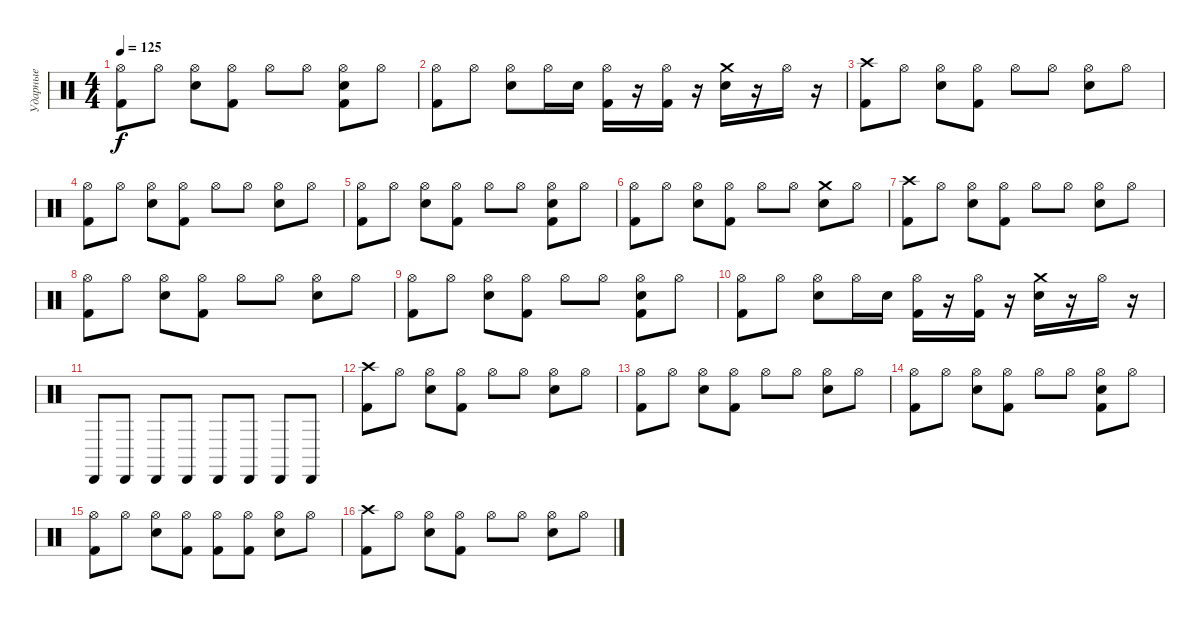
\track ("Ударные" "Ударные") {instrument percussion}
\staff {score}
\articulation defaults
\ts (4 4)
\tempo 125
\clef neutral
\ks c
("Hi-Hat (open)" "Kick (hit) 2").8{dy f} "Hi-Hat (open)".8 ("Hi-Hat (open)" "Snare (hit) 2").8 ("Hi-Hat (open)" "Kick (hit) 2").8 "Hi-Hat (open)".8 "Hi-Hat (open)".8 ("Hi-Hat (open)" "Snare (hit) 2" "Kick (hit) 2").8 "Hi-Hat (open)".8 |
("Hi-Hat (open)" "Kick (hit) 2").8 "Hi-Hat (open)".8 ("Hi-Hat (open)" "Snare (hit) 2").8 "Hi-Hat (open)".16 "Snare (hit) 2".16 ("Hi-Hat (open)" "Kick (hit) 2").16 r.16 ("Hi-Hat (open)" "Kick (hit) 2").16 r.16 ("Crash medium (hit)" "Snare (hit) 2").16 r.16 "Hi-Hat (open)".16 r.16 |
("Crash high (hit)" "Kick (hit) 2").8 "Hi-Hat (open)".8 ("Hi-Hat (open)" "Snare (hit) 2").8 ("Hi-Hat (open)" "Kick (hit) 2").8 "Hi-Hat (open)".8 "Hi-Hat (open)".8 ("Hi-Hat (open)" "Snare (hit) 2").8 "Hi-Hat (open)".8 |
("Hi-Hat (open)" "Kick (hit) 2").8 "Hi-Hat (open)".8 ("Hi-Hat (open)" "Snare (hit) 2").8 ("Hi-Hat (open)" "Kick (hit) 2").8 "Hi-Hat (open)".8 "Hi-Hat (open)".8 ("Hi-Hat (open)" "Snare (hit) 2").8 "Hi-Hat (open)".8 |
("Hi-Hat (open)" "Kick (hit) 2").8 "Hi-Hat (open)".8 ("Hi-Hat (open)" "Snare (hit) 2").8 ("Hi-Hat (open)" "Kick (hit) 2").8 "Hi-Hat (open)".8 "Hi-Hat (open)".8 ("Hi-Hat (open)" "Snare (hit) 2" "Kick (hit) 2").8 "Hi-Hat (open)".8 |
("Hi-Hat (open)" "Kick (hit) 2").8 "Hi-Hat (open)".8 ("Hi-Hat (open)" "Snare (hit) 2").8 ("Hi-Hat (open)" "Kick (hit) 2").8 "Hi-Hat (open)".8 "Hi-Hat (open)".8 ("Crash medium (hit)" "Snare (hit) 2").8 "Hi-Hat (open)".8 |
("Crash high (hit)" "Kick (hit) 2").8 "Hi-Hat (open)".8 ("Hi-Hat (open)" "Snare (hit) 2").8 ("Hi-Hat (open)" "Kick (hit) 2").8 "Hi-Hat (open)".8 "Hi-Hat (open)".8 ("Hi-Hat (open)" "Snare (hit) 2").8 "Hi-Hat (open)".8 |
("Hi-Hat (open)" "Kick (hit) 2").8 "Hi-Hat (open)".8 ("Hi-Hat (open)" "Snare (hit) 2").8 ("Hi-Hat (open)" "Kick (hit) 2").8 "Hi-Hat (open)".8 "Hi-Hat (open)".8 ("Hi-Hat (open)" "Snare (hit) 2").8 "Hi-Hat (open)".8 |
("Hi-Hat (open)" "Kick (hit) 2").8 "Hi-Hat (open)".8 ("Hi-Hat (open)" "Snare (hit) 2").8 ("Hi-Hat (open)" "Kick (hit) 2").8 "Hi-Hat (open)".8 "Hi-Hat (open)".8 ("Hi-Hat (open)" "Snare (hit) 2" "Kick (hit) 2").8 "Hi-Hat (open)".8 |
("Hi-Hat (open)" "Kick (hit) 2").8 "Hi-Hat (open)".8 ("Hi-Hat (open)" "Snare (hit) 2").8 "Hi-Hat (open)".16 "Snare (hit) 2".16 ("Hi-Hat (open)" "Kick (hit) 2").16 r.16 ("Hi-Hat (open)" "Kick (hit) 2").16 r.16 ("Crash medium (hit)" "Snare (hit) 2").16 r.16 "Hi-Hat (open)".16 r.16 |
"Cabasa (hit)".8 "Cabasa (hit)".8 "Cabasa (hit)".8 "Cabasa (hit)".8 "Cabasa (hit)".8 "Cabasa (hit)".8 "Cabasa (hit)".8 "Cabasa (hit)".8 |
("Crash high (hit)" "Kick (hit) 2").8 "Hi-Hat (open)".8 ("Hi-Hat (open)" "Snare (hit) 2").8 ("Hi-Hat (open)" "Kick (hit) 2").8 "Hi-Hat (open)".8 "Hi-Hat (open)".8 ("Hi-Hat (open)" "Snare (hit) 2").8 "Hi-Hat (open)".8 |
("Hi-Hat (open)" "Kick (hit) 2").8 "Hi-Hat (open)".8 ("Hi-Hat (open)" "Snare (hit) 2").8 ("Hi-Hat (open)" "Kick (hit) 2").8 "Hi-Hat (open)".8 "Hi-Hat (open)".8 ("Hi-Hat (open)" "Snare (hit) 2").8 "Hi-Hat (open)".8 |
("Hi-Hat (open)" "Kick (hit) 2").8 "Hi-Hat (open)".8 ("Hi-Hat (open)" "Snare (hit) 2").8 ("Hi-Hat (open)" "Kick (hit) 2").8 "Hi-Hat (open)".8 "Hi-Hat (open)".8 ("Hi-Hat (open)" "Snare (hit) 2" "Kick (hit) 2").8 "Hi-Hat (open)".8 |
("Hi-Hat (open)" "Kick (hit) 2").8 "Hi-Hat (open)".8 ("Hi-Hat (open)" "Snare (hit) 2").8 ("Hi-Hat (open)" "Kick (hit) 2").8 ("Hi-Hat (open)" "Kick (hit) 2").8 ("Hi-Hat (open)" "Kick (hit) 2").8 ("Hi-Hat (open)" "Snare (hit) 2").8 "Hi-Hat (open)".8 |
("Crash high (hit)" "Kick (hit) 2").8 "Hi-Hat (open)".8 ("Hi-Hat (open)" "Snare (hit) 2").8 ("Hi-Hat (open)" "Kick (hit) 2").8 "Hi-Hat (open)".8 "Hi-Hat (open)".8 ("Hi-Hat (open)" "Snare (hit) 2").8 "Hi-Hat (open)".8
